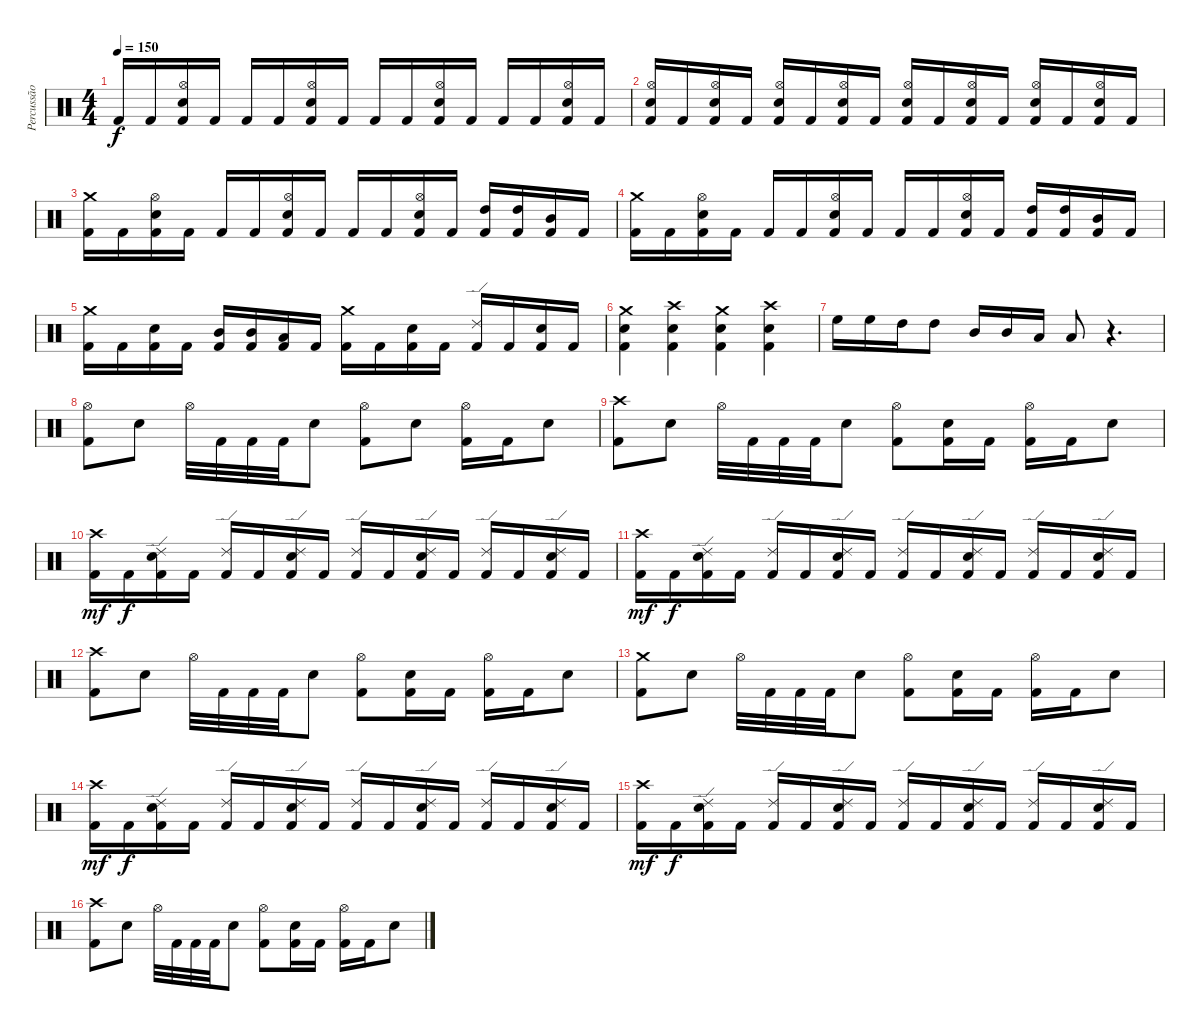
\track ("Percussão" "Percussão") {instrument percussion}
\staff {score}
\articulation defaults
\ts (4 4)
\tempo 150
\clef neutral
\ks c "Kick (hit) 2".16{dy f} "Kick (hit) 2".16
("Hi-Hat (open)" "Snare (hit) 2" "Kick (hit) 2").16 "Kick (hit) 2".16 "Kick (hit) 2".16 "Kick (hit) 2".16 ("Hi-Hat (open)" "Snare (hit) 2" "Kick (hit) 2").16 "Kick (hit) 2".16 "Kick (hit) 2".16 "Kick (hit) 2".16 ("Hi-Hat (open)" "Snare (hit) 2" "Kick (hit) 2").16 "Kick (hit) 2".16 "Kick (hit) 2".16 "Kick (hit) 2".16 ("Hi-Hat (open)" "Snare (hit) 2" "Kick (hit) 2").16 "Kick (hit) 2".16 |
("Hi-Hat (open)" "Snare (hit) 2" "Kick (hit) 2").16 "Kick (hit) 2".16 ("Hi-Hat (open)" "Snare (hit) 2" "Kick (hit) 2").16 "Kick (hit) 2".16 ("Hi-Hat (open)" "Snare (hit) 2" "Kick (hit) 2").16 "Kick (hit) 2".16 ("Hi-Hat (open)" "Snare (hit) 2" "Kick (hit) 2").16 "Kick (hit) 2".16 ("Hi-Hat (open)" "Snare (hit) 2" "Kick (hit) 2").16 "Kick (hit) 2".16 ("Hi-Hat (open)" "Snare (hit) 2" "Kick (hit) 2").16 "Kick (hit) 2".16 ("Hi-Hat (open)" "Snare (hit) 2" "Kick (hit) 2").16 "Kick (hit) 2".16 ("Hi-Hat (open)" "Snare (hit) 2" "Kick (hit) 2").16 "Kick (hit) 2".16 |
("Crash medium (hit)" "Kick (hit) 2").16 "Kick (hit) 2".16 ("Hi-Hat (open)" "Snare (hit) 2" "Kick (hit) 2").16 "Kick (hit) 2".16 "Kick (hit) 2".16 "Kick (hit) 2".16 ("Hi-Hat (open)" "Snare (hit) 2" "Kick (hit) 2").16 "Kick (hit) 2".16 "Kick (hit) 2".16 "Kick (hit) 2".16 ("Hi-Hat (open)" "Snare (hit) 2" "Kick (hit) 2").16 "Kick (hit) 2".16 ("High Tom (hit)" "Kick (hit) 2").16 ("High Tom (hit)" "Kick (hit) 2").16 ("Mid Tom (hit)" "Kick (hit) 2").16 "Kick (hit) 2".16 |
("Crash medium (hit)" "Kick (hit) 2").16 "Kick (hit) 2".16 ("Hi-Hat (open)" "Snare (hit) 2" "Kick (hit) 2").16 "Kick (hit) 2".16 "Kick (hit) 2".16 "Kick (hit) 2".16 ("Hi-Hat (open)" "Snare (hit) 2" "Kick (hit) 2").16 "Kick (hit) 2".16 "Kick (hit) 2".16 "Kick (hit) 2".16 ("Hi-Hat (open)" "Snare (hit) 2" "Kick (hit) 2").16 "Kick (hit) 2".16 ("High Tom (hit)" "Kick (hit) 2").16 ("High Tom (hit)" "Kick (hit) 2").16 ("Mid Tom (hit)" "Kick (hit) 2").16 "Kick (hit) 2".16 |
("Crash medium (hit)" "Kick (hit) 2").16 "Kick (hit) 2".16 ("Snare (hit) 2" "Kick (hit) 2").16 "Kick (hit) 2".16 ("Mid Tom (hit)" "Kick (hit) 2").16 ("Mid Tom (hit)" "Kick (hit) 2").16 ("Low Tom (hit)" "Kick (hit) 2").16 "Kick (hit) 2".16 ("Crash medium (hit)" "Kick (hit) 2").16 "Kick (hit) 2".16 ("Snare (hit) 2" "Kick (hit) 2").16 "Kick (hit) 2".16 ("Ride (edge) 2" "Kick (hit) 2").16 "Kick (hit) 2".16 ("Snare (hit) 2" "Kick (hit) 2").16 "Kick (hit) 2".16 |
("Crash medium (hit)" "Snare (hit) 2" "Kick (hit) 2").4 ("Crash high (hit)" "Snare (hit) 2" "Kick (hit) 2").4 ("Crash medium (hit)" "Snare (hit) 2" "Kick (hit) 2").4 ("Crash high (hit)" "Snare (hit) 2" "Kick (hit) 2").4 |
"High Floor Tom (hit)".16 "High Floor Tom (hit)".16 "High Tom (hit)".16 "High Tom (hit)".8 "Mid Tom (hit)".16 "Mid Tom (hit)".16 "Low Tom (hit)".16 "Low Tom (hit)".8 r.4{d} |
("Hi-Hat (open)" "Kick (hit) 2").8 "Snare (hit) 2".8 "Hi-Hat (open)".32 "Kick (hit) 2".32 "Kick (hit) 2".32 "Kick (hit) 2".32 "Snare (hit) 2".8 ("Hi-Hat (open)" "Kick (hit) 2").8 "Snare (hit) 2".8 ("Hi-Hat (open)" "Kick (hit) 2").16 "Kick (hit) 2".16 "Snare (hit) 2".8 |
("Crash high (hit)" "Kick (hit) 2").8 "Snare (hit) 2".8 "Hi-Hat (open)".32 "Kick (hit) 2".32 "Kick (hit) 2".32 "Kick (hit) 2".32 "Snare (hit) 2".8 ("Hi-Hat (open)" "Kick (hit) 2").8 ("Snare (hit) 2" "Kick (hit) 2").16 "Kick (hit) 2".16 ("Hi-Hat (open)" "Kick (hit) 2").16 "Kick (hit) 2".16 "Snare (hit) 2".8 |
("Crash high (hit)" "Kick (hit) 2").16{dy mf} "Kick (hit) 2".16{dy f} ("Ride (edge) 2" "Snare (hit) 2" "Kick (hit) 2").16 "Kick (hit) 2".16 ("Ride (edge) 2" "Kick (hit) 2").16 "Kick (hit) 2".16 ("Ride (edge) 2" "Snare (hit) 2" "Kick (hit) 2").16 "Kick (hit) 2".16 ("Ride (edge) 2" "Kick (hit) 2").16 "Kick (hit) 2".16 ("Ride (edge) 2" "Snare (hit) 2" "Kick (hit) 2").16 "Kick (hit) 2".16 ("Ride (edge) 2" "Kick (hit) 2").16 "Kick (hit) 2".16 ("Ride (edge) 2" "Snare (hit) 2" "Kick (hit) 2").16 "Kick (hit) 2".16 |
("Crash high (hit)" "Kick (hit) 2").16{dy mf} "Kick (hit) 2".16{dy f} ("Ride (edge) 2" "Snare (hit) 2" "Kick (hit) 2").16 "Kick (hit) 2".16 ("Ride (edge) 2" "Kick (hit) 2").16 "Kick (hit) 2".16 ("Ride (edge) 2" "Snare (hit) 2" "Kick (hit) 2").16 "Kick (hit) 2".16 ("Ride (edge) 2" "Kick (hit) 2").16 "Kick (hit) 2".16 ("Ride (edge) 2" "Snare (hit) 2" "Kick (hit) 2").16 "Kick (hit) 2".16 ("Ride (edge) 2" "Kick (hit) 2").16 "Kick (hit) 2".16 ("Ride (edge) 2" "Snare (hit) 2" "Kick (hit) 2").16 "Kick (hit) 2".16 |
("Crash high (hit)" "Kick (hit) 2").8 "Snare (hit) 2".8 "Hi-Hat (open)".32 "Kick (hit) 2".32 "Kick (hit) 2".32 "Kick (hit) 2".32 "Snare (hit) 2".8 ("Hi-Hat (open)" "Kick (hit) 2").8 ("Snare (hit) 2" "Kick (hit) 2").16 "Kick (hit) 2".16 ("Hi-Hat (open)" "Kick (hit) 2").16 "Kick (hit) 2".16 "Snare (hit) 2".8 |
("Crash medium (hit)" "Kick (hit) 2").8 "Snare (hit) 2".8 "Hi-Hat (open)".32 "Kick (hit) 2".32 "Kick (hit) 2".32 "Kick (hit) 2".32 "Snare (hit) 2".8 ("Hi-Hat (open)" "Kick (hit) 2").8 ("Snare (hit) 2" "Kick (hit) 2").16 "Kick (hit) 2".16 ("Hi-Hat (open)" "Kick (hit) 2").16 "Kick (hit) 2".16 "Snare (hit) 2".8 |
("Crash high (hit)" "Kick (hit) 2").16{dy mf} "Kick (hit) 2".16{dy f} ("Ride (edge) 2" "Snare (hit) 2" "Kick (hit) 2").16 "Kick (hit) 2".16 ("Ride (edge) 2" "Kick (hit) 2").16 "Kick (hit) 2".16 ("Ride (edge) 2" "Snare (hit) 2" "Kick (hit) 2").16 "Kick (hit) 2".16 ("Ride (edge) 2" "Kick (hit) 2").16 "Kick (hit) 2".16 ("Ride (edge) 2" "Snare (hit) 2" "Kick (hit) 2").16 "Kick (hit) 2".16 ("Ride (edge) 2" "Kick (hit) 2").16 "Kick (hit) 2".16 ("Ride (edge) 2" "Snare (hit) 2" "Kick (hit) 2").16 "Kick (hit) 2".16 |
("Crash high (hit)" "Kick (hit) 2").16{dy mf} "Kick (hit) 2".16{dy f} ("Ride (edge) 2" "Snare (hit) 2" "Kick (hit) 2").16 "Kick (hit) 2".16 ("Ride (edge) 2" "Kick (hit) 2").16 "Kick (hit) 2".16 ("Ride (edge) 2" "Snare (hit) 2" "Kick (hit) 2").16 "Kick (hit) 2".16 ("Ride (edge) 2" "Kick (hit) 2").16 "Kick (hit) 2".16 ("Ride (edge) 2" "Snare (hit) 2" "Kick (hit) 2").16 "Kick (hit) 2".16 ("Ride (edge) 2" "Kick (hit) 2").16 "Kick (hit) 2".16 ("Ride (edge) 2" "Snare (hit) 2" "Kick (hit) 2").16 "Kick (hit) 2".16 |
("Crash high (hit)" "Kick (hit) 2").8 "Snare (hit) 2".8 "Hi-Hat (open)".32 "Kick (hit) 2".32 "Kick (hit) 2".32 "Kick (hit) 2".32 "Snare (hit) 2".8 ("Hi-Hat (open)" "Kick (hit) 2").8 ("Snare (hit) 2" "Kick (hit) 2").16 "Kick (hit) 2".16 ("Hi-Hat (open)" "Kick (hit) 2").16 "Kick (hit) 2".16 "Snare (hit) 2".8
